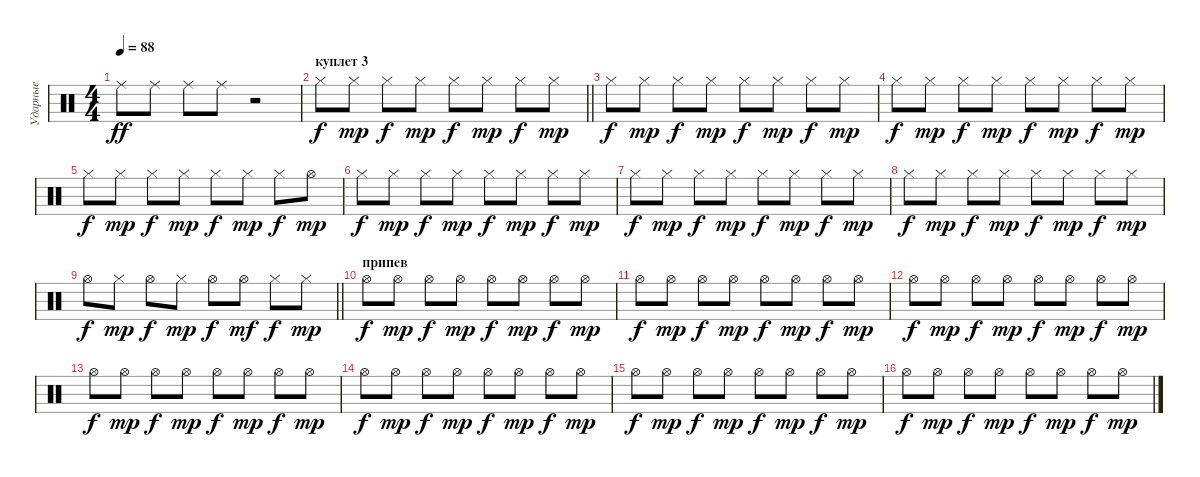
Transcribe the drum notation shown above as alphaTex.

\track ("Ударные" "Ударные") {instrument percussion}
\staff {score}
\articulation defaults
\ts (4 4)
\tempo 88
\clef neutral
\ks c "Ride (middle)".8{dy ff} "Ride (middle)".8 "Ride (middle)".8 "Ride (middle)".8
r.2 |
\section ("" "куплет 3")
\barLineRight lightlight "Hi-Hat (closed)".8{dy f} "Hi-Hat (closed)".8{dy mp} "Hi-Hat (closed)".8{dy f} "Hi-Hat (closed)".8{dy mp} "Hi-Hat (closed)".8{dy f} "Hi-Hat (closed)".8{dy mp} "Hi-Hat (closed)".8{dy f} "Hi-Hat (closed)".8{dy mp}
|
"Hi-Hat (closed)".8{dy f} "Hi-Hat (closed)".8{dy mp} "Hi-Hat (closed)".8{dy f} "Hi-Hat (closed)".8{dy mp} "Hi-Hat (closed)".8{dy f} "Hi-Hat (closed)".8{dy mp} "Hi-Hat (closed)".8{dy f} "Hi-Hat (closed)".8{dy mp} |
"Hi-Hat (closed)".8{dy f} "Hi-Hat (closed)".8{dy mp} "Hi-Hat (closed)".8{dy f} "Hi-Hat (closed)".8{dy mp} "Hi-Hat (closed)".8{dy f} "Hi-Hat (closed)".8{dy mp} "Hi-Hat (closed)".8{dy f} "Hi-Hat (closed)".8{dy mp} |
"Hi-Hat (closed)".8{dy f} "Hi-Hat (closed)".8{dy mp} "Hi-Hat (closed)".8{dy f} "Hi-Hat (closed)".8{dy mp} "Hi-Hat (closed)".8{dy f} "Hi-Hat (closed)".8{dy mp} "Hi-Hat (closed)".8{dy f} "Hi-Hat (open)".8{dy mp} |
"Hi-Hat (closed)".8{dy f} "Hi-Hat (closed)".8{dy mp} "Hi-Hat (closed)".8{dy f} "Hi-Hat (closed)".8{dy mp} "Hi-Hat (closed)".8{dy f} "Hi-Hat (closed)".8{dy mp} "Hi-Hat (closed)".8{dy f} "Hi-Hat (closed)".8{dy mp} |
"Hi-Hat (closed)".8{dy f} "Hi-Hat (closed)".8{dy mp} "Hi-Hat (closed)".8{dy f} "Hi-Hat (closed)".8{dy mp} "Hi-Hat (closed)".8{dy f} "Hi-Hat (closed)".8{dy mp} "Hi-Hat (closed)".8{dy f} "Hi-Hat (closed)".8{dy mp} |
"Hi-Hat (closed)".8{dy f} "Hi-Hat (closed)".8{dy mp} "Hi-Hat (closed)".8{dy f} "Hi-Hat (closed)".8{dy mp} "Hi-Hat (closed)".8{dy f} "Hi-Hat (closed)".8{dy mp} "Hi-Hat (closed)".8{dy f} "Hi-Hat (closed)".8{dy mp} |
\barLineRight lightlight "Hi-Hat (open)".8{dy f} "Hi-Hat (closed)".8{dy mp} "Hi-Hat (open)".8{dy f} "Hi-Hat (closed)".8{dy mp} "Hi-Hat (open)".8{dy f} "Hi-Hat (open)".8{dy mf} "Hi-Hat (closed)".8{dy f} "Hi-Hat (closed)".8{dy mp}
|
\section ("" "припев")
"Hi-Hat (open)".8{dy f} "Hi-Hat (open)".8{dy mp} "Hi-Hat (open)".8{dy f} "Hi-Hat (open)".8{dy mp} "Hi-Hat (open)".8{dy f} "Hi-Hat (open)".8{dy mp} "Hi-Hat (open)".8{dy f} "Hi-Hat (open)".8{dy mp} |
"Hi-Hat (open)".8{dy f} "Hi-Hat (open)".8{dy mp} "Hi-Hat (open)".8{dy f} "Hi-Hat (open)".8{dy mp} "Hi-Hat (open)".8{dy f} "Hi-Hat (open)".8{dy mp} "Hi-Hat (open)".8{dy f} "Hi-Hat (open)".8{dy mp} |
"Hi-Hat (open)".8{dy f} "Hi-Hat (open)".8{dy mp} "Hi-Hat (open)".8{dy f} "Hi-Hat (open)".8{dy mp} "Hi-Hat (open)".8{dy f} "Hi-Hat (open)".8{dy mp} "Hi-Hat (open)".8{dy f} "Hi-Hat (open)".8{dy mp} |
"Hi-Hat (open)".8{dy f} "Hi-Hat (open)".8{dy mp} "Hi-Hat (open)".8{dy f} "Hi-Hat (open)".8{dy mp} "Hi-Hat (open)".8{dy f} "Hi-Hat (open)".8{dy mp} "Hi-Hat (open)".8{dy f} "Hi-Hat (open)".8{dy mp} |
"Hi-Hat (open)".8{dy f} "Hi-Hat (open)".8{dy mp} "Hi-Hat (open)".8{dy f} "Hi-Hat (open)".8{dy mp} "Hi-Hat (open)".8{dy f} "Hi-Hat (open)".8{dy mp} "Hi-Hat (open)".8{dy f} "Hi-Hat (open)".8{dy mp} |
"Hi-Hat (open)".8{dy f} "Hi-Hat (open)".8{dy mp} "Hi-Hat (open)".8{dy f} "Hi-Hat (open)".8{dy mp} "Hi-Hat (open)".8{dy f} "Hi-Hat (open)".8{dy mp} "Hi-Hat (open)".8{dy f} "Hi-Hat (open)".8{dy mp} |
"Hi-Hat (open)".8{dy f} "Hi-Hat (open)".8{dy mp} "Hi-Hat (open)".8{dy f} "Hi-Hat (open)".8{dy mp} "Hi-Hat (open)".8{dy f} "Hi-Hat (open)".8{dy mp} "Hi-Hat (open)".8{dy f} "Hi-Hat (open)".8{dy mp}
